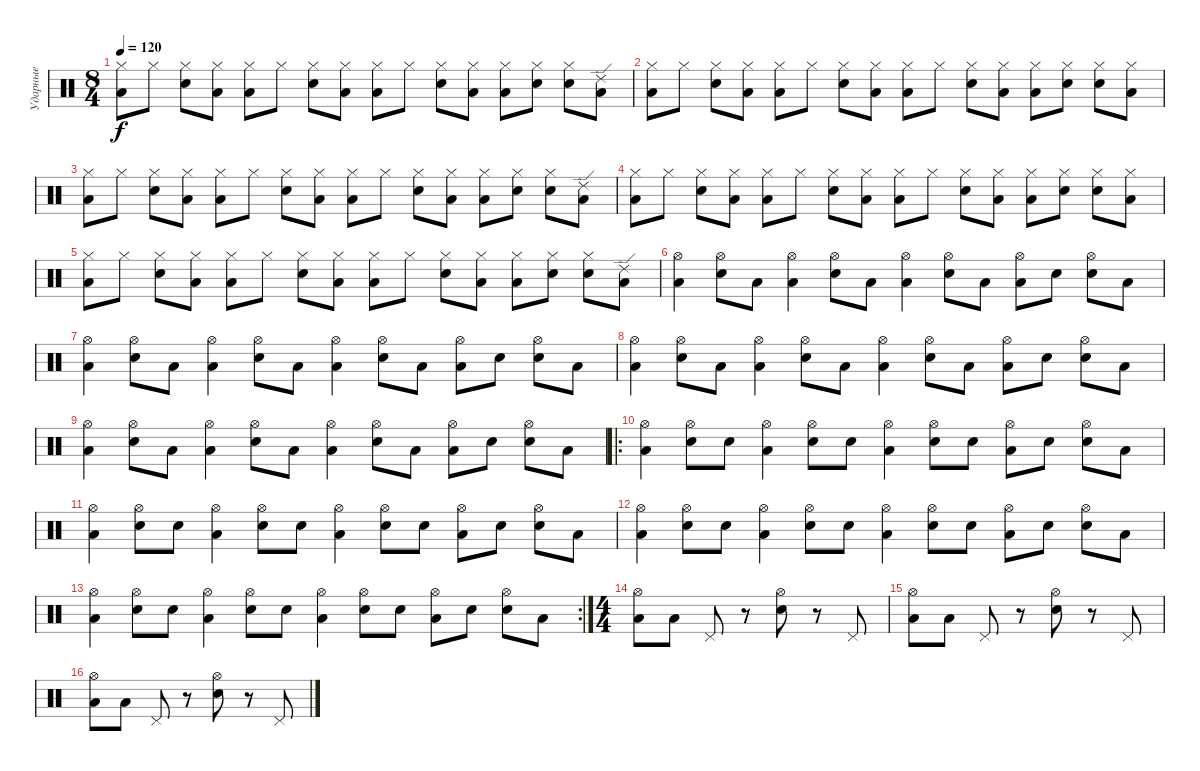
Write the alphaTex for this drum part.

\track ("Ударные" "Ударные") {instrument percussion}
\staff {score}
\articulation defaults
\ts (8 4)
\tempo 120
\clef neutral
\ks c
("Hi-Hat (closed)" "Low Tom (hit)").8{dy f} "Hi-Hat (closed)".8 ("Hi-Hat (closed)" "Electric Snare (hit)").8 ("Hi-Hat (closed)" "Low Tom (hit)").8 ("Hi-Hat (closed)" "Low Tom (hit)").8 "Hi-Hat (closed)".8 ("Hi-Hat (closed)" "Electric Snare (hit)").8 ("Hi-Hat (closed)" "Low Tom (hit)").8 ("Hi-Hat (closed)" "Low Tom (hit)").8 "Hi-Hat (closed)".8 ("Hi-Hat (closed)" "Electric Snare (hit)").8 ("Hi-Hat (closed)" "Low Tom (hit)").8 ("Hi-Hat (closed)" "Low Tom (hit)").8 ("Hi-Hat (closed)" "Electric Snare (hit)").8 ("Hi-Hat (closed)" "Electric Snare (hit)").8 ("Ride (edge) 2" "Low Tom (hit)").8 |
("Hi-Hat (closed)" "Low Tom (hit)").8 "Hi-Hat (closed)".8 ("Hi-Hat (closed)" "Electric Snare (hit)").8 ("Hi-Hat (closed)" "Low Tom (hit)").8 ("Hi-Hat (closed)" "Low Tom (hit)").8 "Hi-Hat (closed)".8 ("Hi-Hat (closed)" "Electric Snare (hit)").8 ("Hi-Hat (closed)" "Low Tom (hit)").8 ("Hi-Hat (closed)" "Low Tom (hit)").8 "Hi-Hat (closed)".8 ("Hi-Hat (closed)" "Electric Snare (hit)").8 ("Hi-Hat (closed)" "Low Tom (hit)").8 ("Hi-Hat (closed)" "Low Tom (hit)").8 ("Hi-Hat (closed)" "Electric Snare (hit)").8 ("Hi-Hat (closed)" "Electric Snare (hit)").8 ("Hi-Hat (closed)" "Low Tom (hit)").8 |
("Hi-Hat (closed)" "Low Tom (hit)").8 "Hi-Hat (closed)".8 ("Hi-Hat (closed)" "Electric Snare (hit)").8 ("Hi-Hat (closed)" "Low Tom (hit)").8 ("Hi-Hat (closed)" "Low Tom (hit)").8 "Hi-Hat (closed)".8 ("Hi-Hat (closed)" "Electric Snare (hit)").8 ("Hi-Hat (closed)" "Low Tom (hit)").8 ("Hi-Hat (closed)" "Low Tom (hit)").8 "Hi-Hat (closed)".8 ("Hi-Hat (closed)" "Electric Snare (hit)").8 ("Hi-Hat (closed)" "Low Tom (hit)").8 ("Hi-Hat (closed)" "Low Tom (hit)").8 ("Hi-Hat (closed)" "Electric Snare (hit)").8 ("Hi-Hat (closed)" "Electric Snare (hit)").8 ("Ride (edge) 2" "Low Tom (hit)").8 |
("Hi-Hat (closed)" "Low Tom (hit)").8 "Hi-Hat (closed)".8 ("Hi-Hat (closed)" "Electric Snare (hit)").8 ("Hi-Hat (closed)" "Low Tom (hit)").8 ("Hi-Hat (closed)" "Low Tom (hit)").8 "Hi-Hat (closed)".8 ("Hi-Hat (closed)" "Electric Snare (hit)").8 ("Hi-Hat (closed)" "Low Tom (hit)").8 ("Hi-Hat (closed)" "Low Tom (hit)").8 "Hi-Hat (closed)".8 ("Hi-Hat (closed)" "Electric Snare (hit)").8 ("Hi-Hat (closed)" "Low Tom (hit)").8 ("Hi-Hat (closed)" "Low Tom (hit)").8 ("Hi-Hat (closed)" "Electric Snare (hit)").8 ("Hi-Hat (closed)" "Electric Snare (hit)").8 ("Hi-Hat (closed)" "Low Tom (hit)").8 |
("Hi-Hat (closed)" "Low Tom (hit)").8 "Hi-Hat (closed)".8 ("Hi-Hat (closed)" "Electric Snare (hit)").8 ("Hi-Hat (closed)" "Low Tom (hit)").8 ("Hi-Hat (closed)" "Low Tom (hit)").8 "Hi-Hat (closed)".8 ("Hi-Hat (closed)" "Electric Snare (hit)").8 ("Hi-Hat (closed)" "Low Tom (hit)").8 ("Hi-Hat (closed)" "Low Tom (hit)").8 "Hi-Hat (closed)".8 ("Hi-Hat (closed)" "Electric Snare (hit)").8 ("Hi-Hat (closed)" "Low Tom (hit)").8 ("Hi-Hat (closed)" "Low Tom (hit)").8 ("Hi-Hat (closed)" "Electric Snare (hit)").8 ("Hi-Hat (closed)" "Electric Snare (hit)").8 ("Ride (edge) 2" "Low Tom (hit)").8 |
("Hi-Hat (open)" "Low Tom (hit)").4 ("Hi-Hat (open)" "Electric Snare (hit)").8 "Low Tom (hit)".8 ("Hi-Hat (open)" "Low Tom (hit)").4 ("Hi-Hat (open)" "Electric Snare (hit)").8 "Low Tom (hit)".8 ("Hi-Hat (open)" "Low Tom (hit)").4 ("Hi-Hat (open)" "Electric Snare (hit)").8 "Low Tom (hit)".8 ("Hi-Hat (open)" "Low Tom (hit)").8 "Electric Snare (hit)".8 ("Hi-Hat (open)" "Electric Snare (hit)").8 "Low Tom (hit)".8 |
("Hi-Hat (open)" "Low Tom (hit)").4 ("Hi-Hat (open)" "Electric Snare (hit)").8 "Low Tom (hit)".8 ("Hi-Hat (open)" "Low Tom (hit)").4 ("Hi-Hat (open)" "Electric Snare (hit)").8 "Low Tom (hit)".8 ("Hi-Hat (open)" "Low Tom (hit)").4 ("Hi-Hat (open)" "Electric Snare (hit)").8 "Low Tom (hit)".8 ("Hi-Hat (open)" "Low Tom (hit)").8 "Electric Snare (hit)".8 ("Hi-Hat (open)" "Electric Snare (hit)").8 "Low Tom (hit)".8 |
("Hi-Hat (open)" "Low Tom (hit)").4 ("Hi-Hat (open)" "Electric Snare (hit)").8 "Low Tom (hit)".8 ("Hi-Hat (open)" "Low Tom (hit)").4 ("Hi-Hat (open)" "Electric Snare (hit)").8 "Low Tom (hit)".8 ("Hi-Hat (open)" "Low Tom (hit)").4 ("Hi-Hat (open)" "Electric Snare (hit)").8 "Low Tom (hit)".8 ("Hi-Hat (open)" "Low Tom (hit)").8 "Electric Snare (hit)".8 ("Hi-Hat (open)" "Electric Snare (hit)").8 "Low Tom (hit)".8 |
("Hi-Hat (open)" "Low Tom (hit)").4 ("Hi-Hat (open)" "Electric Snare (hit)").8 "Low Tom (hit)".8 ("Hi-Hat (open)" "Low Tom (hit)").4 ("Hi-Hat (open)" "Electric Snare (hit)").8 "Low Tom (hit)".8 ("Hi-Hat (open)" "Low Tom (hit)").4 ("Hi-Hat (open)" "Electric Snare (hit)").8 "Low Tom (hit)".8 ("Hi-Hat (open)" "Low Tom (hit)").8 "Electric Snare (hit)".8 ("Hi-Hat (open)" "Electric Snare (hit)").8 "Low Tom (hit)".8 |
\ro
("Hi-Hat (open)" "Low Tom (hit)").4 ("Hi-Hat (open)" "Electric Snare (hit)").8 "Electric Snare (hit)".8 ("Hi-Hat (open)" "Low Tom (hit)").4 ("Hi-Hat (open)" "Electric Snare (hit)").8 "Electric Snare (hit)".8 ("Hi-Hat (open)" "Low Tom (hit)").4 ("Hi-Hat (open)" "Electric Snare (hit)").8 "Electric Snare (hit)".8 ("Hi-Hat (open)" "Low Tom (hit)").8 "Electric Snare (hit)".8 ("Hi-Hat (open)" "Electric Snare (hit)").8 "Low Tom (hit)".8 |
("Hi-Hat (open)" "Low Tom (hit)").4 ("Hi-Hat (open)" "Electric Snare (hit)").8 "Electric Snare (hit)".8 ("Hi-Hat (open)" "Low Tom (hit)").4 ("Hi-Hat (open)" "Electric Snare (hit)").8 "Electric Snare (hit)".8 ("Hi-Hat (open)" "Low Tom (hit)").4 ("Hi-Hat (open)" "Electric Snare (hit)").8 "Electric Snare (hit)".8 ("Hi-Hat (open)" "Low Tom (hit)").8 "Electric Snare (hit)".8 ("Hi-Hat (open)" "Electric Snare (hit)").8 "Low Tom (hit)".8 |
("Hi-Hat (open)" "Low Tom (hit)").4 ("Hi-Hat (open)" "Electric Snare (hit)").8 "Electric Snare (hit)".8 ("Hi-Hat (open)" "Low Tom (hit)").4 ("Hi-Hat (open)" "Electric Snare (hit)").8 "Electric Snare (hit)".8 ("Hi-Hat (open)" "Low Tom (hit)").4 ("Hi-Hat (open)" "Electric Snare (hit)").8 "Electric Snare (hit)".8 ("Hi-Hat (open)" "Low Tom (hit)").8 "Electric Snare (hit)".8 ("Hi-Hat (open)" "Electric Snare (hit)").8 "Low Tom (hit)".8 |
\rc 2
("Hi-Hat (open)" "Low Tom (hit)").4 ("Hi-Hat (open)" "Electric Snare (hit)").8 "Electric Snare (hit)".8 ("Hi-Hat (open)" "Low Tom (hit)").4 ("Hi-Hat (open)" "Electric Snare (hit)").8 "Electric Snare (hit)".8 ("Hi-Hat (open)" "Low Tom (hit)").4 ("Hi-Hat (open)" "Electric Snare (hit)").8 "Electric Snare (hit)".8 ("Hi-Hat (open)" "Low Tom (hit)").8 "Electric Snare (hit)".8 ("Hi-Hat (open)" "Electric Snare (hit)").8 "Low Tom (hit)".8 |
\ts (4 4)
("Hi-Hat (open)" "Low Tom (hit)").8 "Low Tom (hit)".8 "Pedal Hi-Hat (hit)".8 r.8 ("Hi-Hat (open)" "Electric Snare (hit)").8 r.8 "Pedal Hi-Hat (hit)".8 |
("Hi-Hat (open)" "Low Tom (hit)").8 "Low Tom (hit)".8 "Pedal Hi-Hat (hit)".8 r.8 ("Hi-Hat (open)" "Electric Snare (hit)").8 r.8 "Pedal Hi-Hat (hit)".8 |
("Hi-Hat (open)" "Low Tom (hit)").8 "Low Tom (hit)".8 "Pedal Hi-Hat (hit)".8 r.8 ("Hi-Hat (open)" "Electric Snare (hit)").8 r.8 "Pedal Hi-Hat (hit)".8
